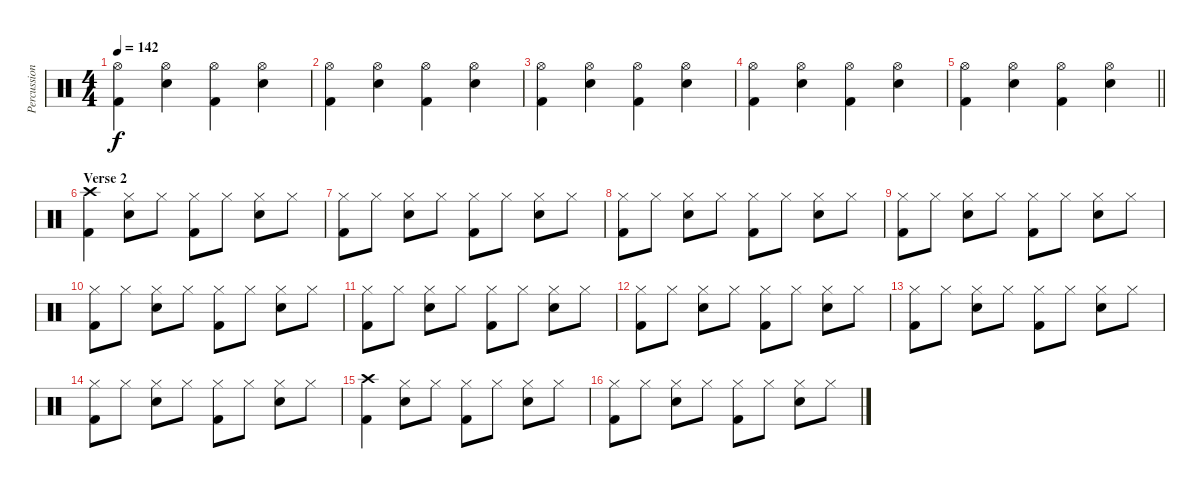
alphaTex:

\track ("Percussion" "Percussion") {instrument percussion}
\staff {score}
\articulation defaults
\ts (4 4)
\tempo 142
\clef neutral
\ks c
("Hi-Hat (open)" "Kick (hit) 2").4{dy f} ("Hi-Hat (open)" "Snare (hit) 2").4 ("Hi-Hat (open)" "Kick (hit) 2").4 ("Hi-Hat (open)" "Snare (hit) 2").4 |
("Hi-Hat (open)" "Kick (hit) 2").4 ("Hi-Hat (open)" "Snare (hit) 2").4 ("Hi-Hat (open)" "Kick (hit) 2").4 ("Hi-Hat (open)" "Snare (hit) 2").4 |
("Hi-Hat (open)" "Kick (hit) 2").4 ("Hi-Hat (open)" "Snare (hit) 2").4 ("Hi-Hat (open)" "Kick (hit) 2").4 ("Hi-Hat (open)" "Snare (hit) 2").4 |
("Hi-Hat (open)" "Kick (hit) 2").4 ("Hi-Hat (open)" "Snare (hit) 2").4 ("Hi-Hat (open)" "Kick (hit) 2").4 ("Hi-Hat (open)" "Snare (hit) 2").4 |
\barLineRight lightlight
("Hi-Hat (open)" "Kick (hit) 2").4 ("Hi-Hat (open)" "Snare (hit) 2").4 ("Hi-Hat (open)" "Kick (hit) 2").4 ("Hi-Hat (open)" "Snare (hit) 2").4 |
\section ("" "Verse 2")
("Crash high (hit)" "Kick (hit) 2").4 ("Hi-Hat (closed)" "Snare (hit) 2").8 "Hi-Hat (closed)".8 ("Hi-Hat (closed)" "Kick (hit) 2").8 "Hi-Hat (closed)".8 ("Hi-Hat (closed)" "Snare (hit) 2").8 "Hi-Hat (closed)".8 |
("Hi-Hat (closed)" "Kick (hit) 2").8 "Hi-Hat (closed)".8 ("Hi-Hat (closed)" "Snare (hit) 2").8 "Hi-Hat (closed)".8 ("Hi-Hat (closed)" "Kick (hit) 2").8 "Hi-Hat (closed)".8 ("Hi-Hat (closed)" "Snare (hit) 2").8 "Hi-Hat (closed)".8 |
("Hi-Hat (closed)" "Kick (hit) 2").8 "Hi-Hat (closed)".8 ("Hi-Hat (closed)" "Snare (hit) 2").8 "Hi-Hat (closed)".8 ("Hi-Hat (closed)" "Kick (hit) 2").8 "Hi-Hat (closed)".8 ("Hi-Hat (closed)" "Snare (hit) 2").8 "Hi-Hat (closed)".8 |
("Hi-Hat (closed)" "Kick (hit) 2").8 "Hi-Hat (closed)".8 ("Hi-Hat (closed)" "Snare (hit) 2").8 "Hi-Hat (closed)".8 ("Hi-Hat (closed)" "Kick (hit) 2").8 "Hi-Hat (closed)".8 ("Hi-Hat (closed)" "Snare (hit) 2").8 "Hi-Hat (closed)".8 |
("Hi-Hat (closed)" "Kick (hit) 2").8 "Hi-Hat (closed)".8 ("Hi-Hat (closed)" "Snare (hit) 2").8 "Hi-Hat (closed)".8 ("Hi-Hat (closed)" "Kick (hit) 2").8 "Hi-Hat (closed)".8 ("Hi-Hat (closed)" "Snare (hit) 2").8 "Hi-Hat (closed)".8 |
("Hi-Hat (closed)" "Kick (hit) 2").8 "Hi-Hat (closed)".8 ("Hi-Hat (closed)" "Snare (hit) 2").8 "Hi-Hat (closed)".8 ("Hi-Hat (closed)" "Kick (hit) 2").8 "Hi-Hat (closed)".8 ("Hi-Hat (closed)" "Snare (hit) 2").8 "Hi-Hat (closed)".8 |
("Hi-Hat (closed)" "Kick (hit) 2").8 "Hi-Hat (closed)".8 ("Hi-Hat (closed)" "Snare (hit) 2").8 "Hi-Hat (closed)".8 ("Hi-Hat (closed)" "Kick (hit) 2").8 "Hi-Hat (closed)".8 ("Hi-Hat (closed)" "Snare (hit) 2").8 "Hi-Hat (closed)".8 |
("Hi-Hat (closed)" "Kick (hit) 2").8 "Hi-Hat (closed)".8 ("Hi-Hat (closed)" "Snare (hit) 2").8 "Hi-Hat (closed)".8 ("Hi-Hat (closed)" "Kick (hit) 2").8 "Hi-Hat (closed)".8 ("Hi-Hat (closed)" "Snare (hit) 2").8 "Hi-Hat (closed)".8 |
("Hi-Hat (closed)" "Kick (hit) 2").8 "Hi-Hat (closed)".8 ("Hi-Hat (closed)" "Snare (hit) 2").8 "Hi-Hat (closed)".8 ("Hi-Hat (closed)" "Kick (hit) 2").8 "Hi-Hat (closed)".8 ("Hi-Hat (closed)" "Snare (hit) 2").8 "Hi-Hat (closed)".8 |
("Crash high (hit)" "Kick (hit) 2").4 ("Hi-Hat (closed)" "Snare (hit) 2").8 "Hi-Hat (closed)".8 ("Hi-Hat (closed)" "Kick (hit) 2").8 "Hi-Hat (closed)".8 ("Hi-Hat (closed)" "Snare (hit) 2").8 "Hi-Hat (closed)".8 |
("Hi-Hat (closed)" "Kick (hit) 2").8 "Hi-Hat (closed)".8 ("Hi-Hat (closed)" "Snare (hit) 2").8 "Hi-Hat (closed)".8 ("Hi-Hat (closed)" "Kick (hit) 2").8 "Hi-Hat (closed)".8 ("Hi-Hat (closed)" "Snare (hit) 2").8 "Hi-Hat (closed)".8
